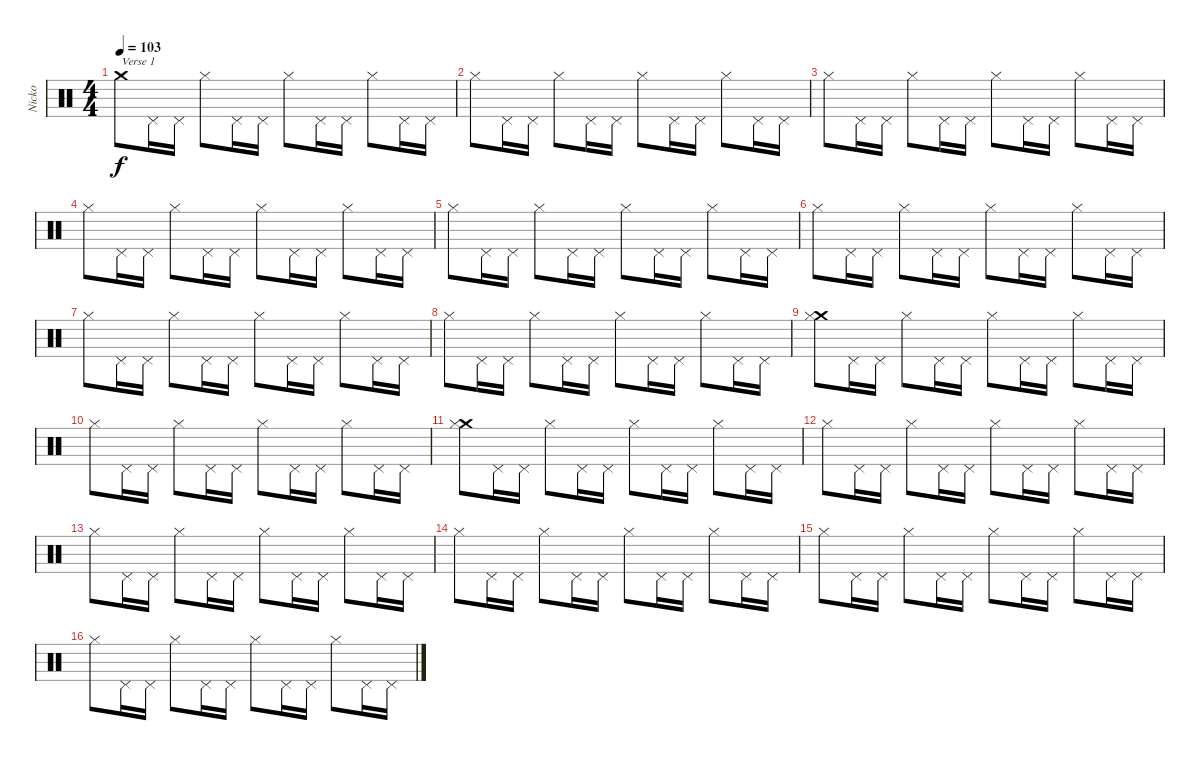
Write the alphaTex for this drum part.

\track ("Nicko" "Nicko") {instrument percussion}
\staff {score}
\articulation defaults
\ts (4 4)
\tempo 103
\clef neutral
\ks c "Crash medium (hit)".8{txt "Verse 1" dy f} "Pedal Hi-Hat (hit)".16 "Pedal Hi-Hat (hit)".16 "Hi-Hat (closed)".8 "Pedal Hi-Hat (hit)".16 "Pedal Hi-Hat (hit)".16 "Hi-Hat (closed)".8 "Pedal Hi-Hat (hit)".16 "Pedal Hi-Hat (hit)".16 "Hi-Hat (closed)".8 "Pedal Hi-Hat (hit)".16 "Pedal Hi-Hat (hit)".16
|
"Hi-Hat (closed)".8 "Pedal Hi-Hat (hit)".16 "Pedal Hi-Hat (hit)".16 "Hi-Hat (closed)".8 "Pedal Hi-Hat (hit)".16 "Pedal Hi-Hat (hit)".16 "Hi-Hat (closed)".8 "Pedal Hi-Hat (hit)".16 "Pedal Hi-Hat (hit)".16 "Hi-Hat (closed)".8 "Pedal Hi-Hat (hit)".16 "Pedal Hi-Hat (hit)".16 |
"Hi-Hat (closed)".8 "Pedal Hi-Hat (hit)".16 "Pedal Hi-Hat (hit)".16 "Hi-Hat (closed)".8 "Pedal Hi-Hat (hit)".16 "Pedal Hi-Hat (hit)".16 "Hi-Hat (closed)".8 "Pedal Hi-Hat (hit)".16 "Pedal Hi-Hat (hit)".16 "Hi-Hat (closed)".8 "Pedal Hi-Hat (hit)".16 "Pedal Hi-Hat (hit)".16 |
"Hi-Hat (closed)".8 "Pedal Hi-Hat (hit)".16 "Pedal Hi-Hat (hit)".16 "Hi-Hat (closed)".8 "Pedal Hi-Hat (hit)".16 "Pedal Hi-Hat (hit)".16 "Hi-Hat (closed)".8 "Pedal Hi-Hat (hit)".16 "Pedal Hi-Hat (hit)".16 "Hi-Hat (closed)".8 "Pedal Hi-Hat (hit)".16 "Pedal Hi-Hat (hit)".16 |
"Hi-Hat (closed)".8 "Pedal Hi-Hat (hit)".16 "Pedal Hi-Hat (hit)".16 "Hi-Hat (closed)".8 "Pedal Hi-Hat (hit)".16 "Pedal Hi-Hat (hit)".16 "Hi-Hat (closed)".8 "Pedal Hi-Hat (hit)".16 "Pedal Hi-Hat (hit)".16 "Hi-Hat (closed)".8 "Pedal Hi-Hat (hit)".16 "Pedal Hi-Hat (hit)".16 |
"Hi-Hat (closed)".8 "Pedal Hi-Hat (hit)".16 "Pedal Hi-Hat (hit)".16 "Hi-Hat (closed)".8 "Pedal Hi-Hat (hit)".16 "Pedal Hi-Hat (hit)".16 "Hi-Hat (closed)".8 "Pedal Hi-Hat (hit)".16 "Pedal Hi-Hat (hit)".16 "Hi-Hat (closed)".8 "Pedal Hi-Hat (hit)".16 "Pedal Hi-Hat (hit)".16 |
"Hi-Hat (closed)".8 "Pedal Hi-Hat (hit)".16 "Pedal Hi-Hat (hit)".16 "Hi-Hat (closed)".8 "Pedal Hi-Hat (hit)".16 "Pedal Hi-Hat (hit)".16 "Hi-Hat (closed)".8 "Pedal Hi-Hat (hit)".16 "Pedal Hi-Hat (hit)".16 "Hi-Hat (closed)".8 "Pedal Hi-Hat (hit)".16 "Pedal Hi-Hat (hit)".16 |
"Hi-Hat (closed)".8 "Pedal Hi-Hat (hit)".16 "Pedal Hi-Hat (hit)".16 "Hi-Hat (closed)".8 "Pedal Hi-Hat (hit)".16 "Pedal Hi-Hat (hit)".16 "Hi-Hat (closed)".8 "Pedal Hi-Hat (hit)".16 "Pedal Hi-Hat (hit)".16 "Hi-Hat (closed)".8 "Pedal Hi-Hat (hit)".16 "Pedal Hi-Hat (hit)".16{volume 0} |
("Crash medium (hit)" "Hi-Hat (closed)").8{volume 12} "Pedal Hi-Hat (hit)".16 "Pedal Hi-Hat (hit)".16 "Hi-Hat (closed)".8 "Pedal Hi-Hat (hit)".16 "Pedal Hi-Hat (hit)".16 "Hi-Hat (closed)".8 "Pedal Hi-Hat (hit)".16 "Pedal Hi-Hat (hit)".16 "Hi-Hat (closed)".8 "Pedal Hi-Hat (hit)".16 "Pedal Hi-Hat (hit)".16 |
"Hi-Hat (closed)".8 "Pedal Hi-Hat (hit)".16 "Pedal Hi-Hat (hit)".16 "Hi-Hat (closed)".8 "Pedal Hi-Hat (hit)".16 "Pedal Hi-Hat (hit)".16 "Hi-Hat (closed)".8 "Pedal Hi-Hat (hit)".16 "Pedal Hi-Hat (hit)".16 "Hi-Hat (closed)".8 "Pedal Hi-Hat (hit)".16 "Pedal Hi-Hat (hit)".16{volume 0} |
("Crash medium (hit)" "Hi-Hat (closed)").8{volume 12} "Pedal Hi-Hat (hit)".16 "Pedal Hi-Hat (hit)".16 "Hi-Hat (closed)".8 "Pedal Hi-Hat (hit)".16 "Pedal Hi-Hat (hit)".16 "Hi-Hat (closed)".8 "Pedal Hi-Hat (hit)".16 "Pedal Hi-Hat (hit)".16 "Hi-Hat (closed)".8 "Pedal Hi-Hat (hit)".16 "Pedal Hi-Hat (hit)".16 |
"Hi-Hat (closed)".8 "Pedal Hi-Hat (hit)".16 "Pedal Hi-Hat (hit)".16 "Hi-Hat (closed)".8 "Pedal Hi-Hat (hit)".16 "Pedal Hi-Hat (hit)".16 "Hi-Hat (closed)".8 "Pedal Hi-Hat (hit)".16 "Pedal Hi-Hat (hit)".16 "Hi-Hat (closed)".8 "Pedal Hi-Hat (hit)".16 "Pedal Hi-Hat (hit)".16 |
"Hi-Hat (closed)".8 "Pedal Hi-Hat (hit)".16 "Pedal Hi-Hat (hit)".16 "Hi-Hat (closed)".8 "Pedal Hi-Hat (hit)".16 "Pedal Hi-Hat (hit)".16 "Hi-Hat (closed)".8 "Pedal Hi-Hat (hit)".16 "Pedal Hi-Hat (hit)".16 "Hi-Hat (closed)".8 "Pedal Hi-Hat (hit)".16 "Pedal Hi-Hat (hit)".16 |
"Hi-Hat (closed)".8 "Pedal Hi-Hat (hit)".16 "Pedal Hi-Hat (hit)".16 "Hi-Hat (closed)".8 "Pedal Hi-Hat (hit)".16 "Pedal Hi-Hat (hit)".16 "Hi-Hat (closed)".8 "Pedal Hi-Hat (hit)".16 "Pedal Hi-Hat (hit)".16 "Hi-Hat (closed)".8 "Pedal Hi-Hat (hit)".16 "Pedal Hi-Hat (hit)".16 |
"Hi-Hat (closed)".8 "Pedal Hi-Hat (hit)".16 "Pedal Hi-Hat (hit)".16 "Hi-Hat (closed)".8 "Pedal Hi-Hat (hit)".16 "Pedal Hi-Hat (hit)".16 "Hi-Hat (closed)".8 "Pedal Hi-Hat (hit)".16 "Pedal Hi-Hat (hit)".16 "Hi-Hat (closed)".8 "Pedal Hi-Hat (hit)".16 "Pedal Hi-Hat (hit)".16 |
"Hi-Hat (closed)".8 "Pedal Hi-Hat (hit)".16 "Pedal Hi-Hat (hit)".16 "Hi-Hat (closed)".8 "Pedal Hi-Hat (hit)".16 "Pedal Hi-Hat (hit)".16 "Hi-Hat (closed)".8 "Pedal Hi-Hat (hit)".16 "Pedal Hi-Hat (hit)".16 "Hi-Hat (closed)".8 "Pedal Hi-Hat (hit)".16 "Pedal Hi-Hat (hit)".16
